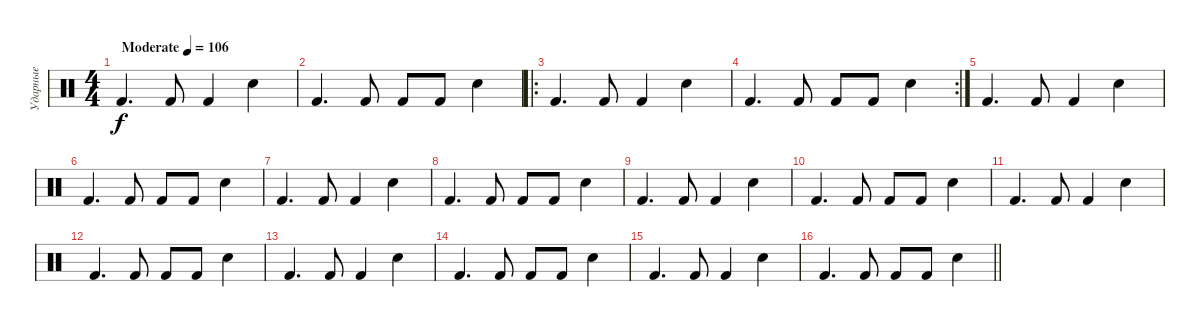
\track ("Ударные" "Ударные") {instrument percussion}
\staff {score}
\articulation defaults
\ts (4 4)
\tempo (106 "Moderate")
\clef neutral
\ks c "Kick (hit) 2".4{d dy f} "Kick (hit) 2".8 "Kick (hit) 2".4 "Snare (hit) 2".4
|
"Kick (hit) 2".4{d} "Kick (hit) 2".8 "Kick (hit) 2".8 "Kick (hit) 2".8 "Snare (hit) 2".4 |
\ro "Kick (hit) 2".4{d} "Kick (hit) 2".8 "Kick (hit) 2".4 "Snare (hit) 2".4
|
\rc 2 "Kick (hit) 2".4{d} "Kick (hit) 2".8 "Kick (hit) 2".8 "Kick (hit) 2".8 "Snare (hit) 2".4
|
"Kick (hit) 2".4{d} "Kick (hit) 2".8 "Kick (hit) 2".4 "Snare (hit) 2".4 |
"Kick (hit) 2".4{d} "Kick (hit) 2".8 "Kick (hit) 2".8 "Kick (hit) 2".8 "Snare (hit) 2".4 |
"Kick (hit) 2".4{d} "Kick (hit) 2".8 "Kick (hit) 2".4 "Snare (hit) 2".4 |
"Kick (hit) 2".4{d} "Kick (hit) 2".8 "Kick (hit) 2".8 "Kick (hit) 2".8 "Snare (hit) 2".4 |
"Kick (hit) 2".4{d} "Kick (hit) 2".8 "Kick (hit) 2".4 "Snare (hit) 2".4 |
"Kick (hit) 2".4{d} "Kick (hit) 2".8 "Kick (hit) 2".8 "Kick (hit) 2".8 "Snare (hit) 2".4 |
"Kick (hit) 2".4{d} "Kick (hit) 2".8 "Kick (hit) 2".4 "Snare (hit) 2".4 |
"Kick (hit) 2".4{d} "Kick (hit) 2".8 "Kick (hit) 2".8 "Kick (hit) 2".8 "Snare (hit) 2".4 |
"Kick (hit) 2".4{d} "Kick (hit) 2".8 "Kick (hit) 2".4 "Snare (hit) 2".4 |
"Kick (hit) 2".4{d} "Kick (hit) 2".8 "Kick (hit) 2".8 "Kick (hit) 2".8 "Snare (hit) 2".4 |
"Kick (hit) 2".4{d} "Kick (hit) 2".8 "Kick (hit) 2".4 "Snare (hit) 2".4 |
\barLineRight lightlight "Kick (hit) 2".4{d} "Kick (hit) 2".8 "Kick (hit) 2".8 "Kick (hit) 2".8 "Snare (hit) 2".4
